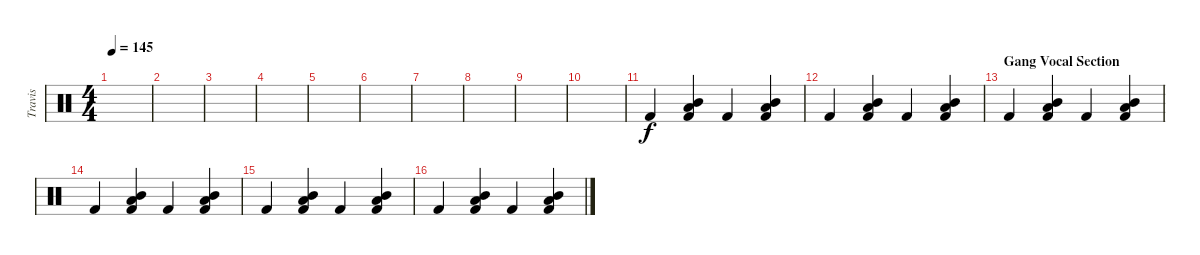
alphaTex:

\track ("Travis" "Travis") {instrument percussion}
\staff {score}
\articulation defaults
\ts (4 4)
\tempo 145
\clef neutral
\ks c
|
|
|
|
|
|
|
|
|
|
"Kick (hit) 2".4 ("Mid Tom (hit)" "Low Floor Tom (hit)" "Kick (hit) 2").4 "Kick (hit) 2".4 ("Mid Tom (hit)" "Low Floor Tom (hit)" "Kick (hit) 2").4 |
"Kick (hit) 2".4 ("Mid Tom (hit)" "Low Floor Tom (hit)" "Kick (hit) 2").4 "Kick (hit) 2".4 ("Mid Tom (hit)" "Low Floor Tom (hit)" "Kick (hit) 2").4 |
\section ("" "Gang Vocal Section")
"Kick (hit) 2".4 ("Mid Tom (hit)" "Low Floor Tom (hit)" "Kick (hit) 2").4 "Kick (hit) 2".4 ("Mid Tom (hit)" "Low Floor Tom (hit)" "Kick (hit) 2").4 |
"Kick (hit) 2".4 ("Mid Tom (hit)" "Low Floor Tom (hit)" "Kick (hit) 2").4 "Kick (hit) 2".4 ("Mid Tom (hit)" "Low Floor Tom (hit)" "Kick (hit) 2").4 |
"Kick (hit) 2".4 ("Mid Tom (hit)" "Low Floor Tom (hit)" "Kick (hit) 2").4 "Kick (hit) 2".4 ("Mid Tom (hit)" "Low Floor Tom (hit)" "Kick (hit) 2").4 |
"Kick (hit) 2".4 ("Mid Tom (hit)" "Low Floor Tom (hit)" "Kick (hit) 2").4 "Kick (hit) 2".4 ("Mid Tom (hit)" "Low Floor Tom (hit)" "Kick (hit) 2").4
